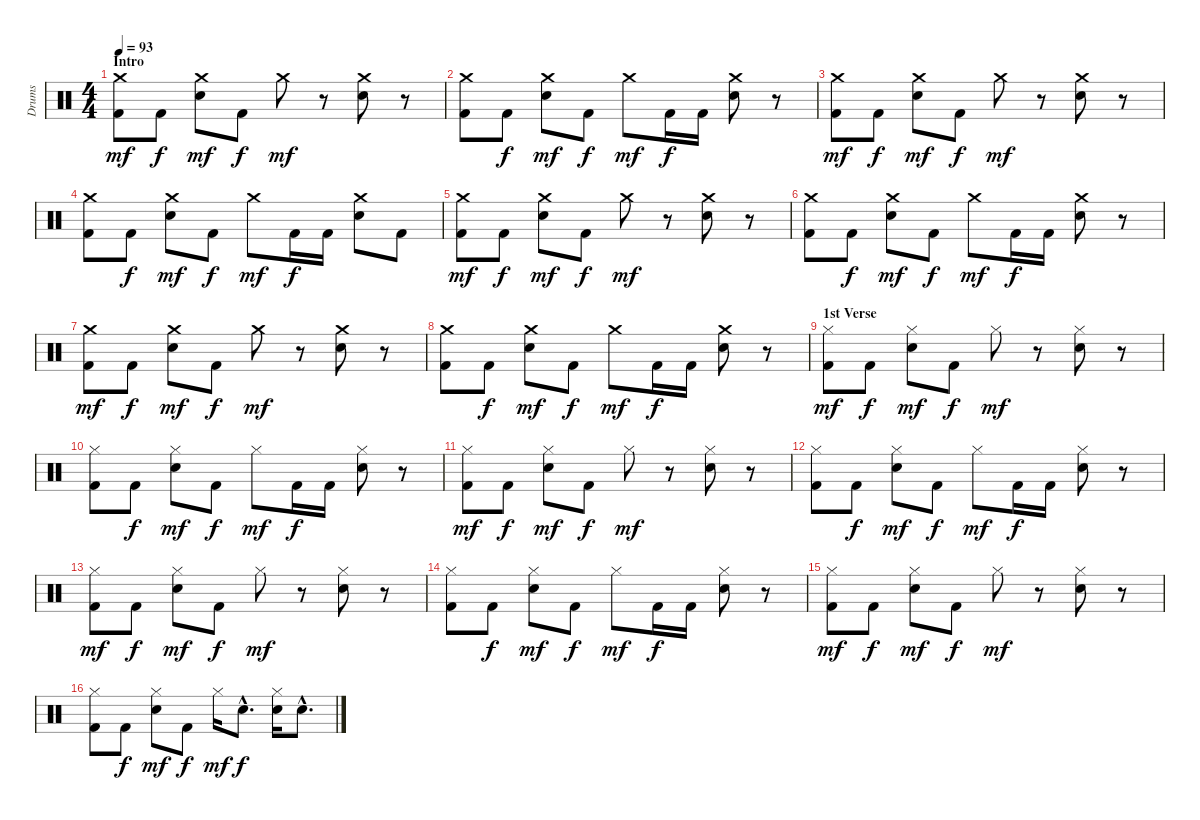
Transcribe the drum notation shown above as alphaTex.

\track ("Drums" "Drums") {instrument percussion}
\staff {score}
\articulation defaults
\ts (4 4)
\section ("" "Intro")
\tempo 93
\clef neutral
\ks c
("Kick (hit) 2" "Crash medium (hit)").8{dy mf} "Kick (hit) 2".8{dy f} ("Snare (hit) 2" "Crash medium (hit)").8{dy mf} "Kick (hit) 2".8{dy f} "Crash medium (hit)".8{dy mf} r.8 ("Snare (hit) 2" "Crash medium (hit)").8 r.8 |
("Kick (hit) 2" "Crash medium (hit)").8 "Kick (hit) 2".8{dy f} ("Snare (hit) 2" "Crash medium (hit)").8{dy mf} "Kick (hit) 2".8{dy f} "Crash medium (hit)".8{dy mf} "Kick (hit) 2".16{dy f} "Kick (hit) 2".16 ("Snare (hit) 2" "Crash medium (hit)").8 r.8 |
("Kick (hit) 2" "Crash medium (hit)").8{dy mf} "Kick (hit) 2".8{dy f} ("Snare (hit) 2" "Crash medium (hit)").8{dy mf} "Kick (hit) 2".8{dy f} "Crash medium (hit)".8{dy mf} r.8 ("Snare (hit) 2" "Crash medium (hit)").8 r.8 |
("Kick (hit) 2" "Crash medium (hit)").8 "Kick (hit) 2".8{dy f} ("Snare (hit) 2" "Crash medium (hit)").8{dy mf} "Kick (hit) 2".8{dy f} "Crash medium (hit)".8{dy mf} "Kick (hit) 2".16{dy f} "Kick (hit) 2".16 ("Snare (hit) 2" "Crash medium (hit)").8 "Kick (hit) 2".8 |
("Kick (hit) 2" "Crash medium (hit)").8{dy mf} "Kick (hit) 2".8{dy f} ("Snare (hit) 2" "Crash medium (hit)").8{dy mf} "Kick (hit) 2".8{dy f} "Crash medium (hit)".8{dy mf} r.8 ("Snare (hit) 2" "Crash medium (hit)").8 r.8 |
("Kick (hit) 2" "Crash medium (hit)").8 "Kick (hit) 2".8{dy f} ("Snare (hit) 2" "Crash medium (hit)").8{dy mf} "Kick (hit) 2".8{dy f} "Crash medium (hit)".8{dy mf} "Kick (hit) 2".16{dy f} "Kick (hit) 2".16 ("Snare (hit) 2" "Crash medium (hit)").8 r.8 |
("Kick (hit) 2" "Crash medium (hit)").8{dy mf} "Kick (hit) 2".8{dy f} ("Snare (hit) 2" "Crash medium (hit)").8{dy mf} "Kick (hit) 2".8{dy f} "Crash medium (hit)".8{dy mf} r.8 ("Snare (hit) 2" "Crash medium (hit)").8 r.8 |
("Kick (hit) 2" "Crash medium (hit)").8 "Kick (hit) 2".8{dy f} ("Snare (hit) 2" "Crash medium (hit)").8{dy mf} "Kick (hit) 2".8{dy f} "Crash medium (hit)".8{dy mf} "Kick (hit) 2".16{dy f} "Kick (hit) 2".16 ("Snare (hit) 2" "Crash medium (hit)").8 r.8 |
\section ("" "1st Verse")
("Kick (hit) 2" "Hi-Hat (closed)").8{dy mf} "Kick (hit) 2".8{dy f} ("Snare (hit) 2" "Hi-Hat (closed)").8{dy mf} "Kick (hit) 2".8{dy f} "Hi-Hat (closed)".8{dy mf} r.8 ("Snare (hit) 2" "Hi-Hat (closed)").8 r.8 |
("Kick (hit) 2" "Hi-Hat (closed)").8 "Kick (hit) 2".8{dy f} ("Snare (hit) 2" "Hi-Hat (closed)").8{dy mf} "Kick (hit) 2".8{dy f} "Hi-Hat (closed)".8{dy mf} "Kick (hit) 2".16{dy f} "Kick (hit) 2".16 ("Snare (hit) 2" "Hi-Hat (closed)").8 r.8 |
("Kick (hit) 2" "Hi-Hat (closed)").8{dy mf} "Kick (hit) 2".8{dy f} ("Snare (hit) 2" "Hi-Hat (closed)").8{dy mf} "Kick (hit) 2".8{dy f} "Hi-Hat (closed)".8{dy mf} r.8 ("Snare (hit) 2" "Hi-Hat (closed)").8 r.8 |
("Kick (hit) 2" "Hi-Hat (closed)").8 "Kick (hit) 2".8{dy f} ("Snare (hit) 2" "Hi-Hat (closed)").8{dy mf} "Kick (hit) 2".8{dy f} "Hi-Hat (closed)".8{dy mf} "Kick (hit) 2".16{dy f} "Kick (hit) 2".16 ("Snare (hit) 2" "Hi-Hat (closed)").8 r.8 |
("Kick (hit) 2" "Hi-Hat (closed)").8{dy mf} "Kick (hit) 2".8{dy f} ("Snare (hit) 2" "Hi-Hat (closed)").8{dy mf} "Kick (hit) 2".8{dy f} "Hi-Hat (closed)".8{dy mf} r.8 ("Snare (hit) 2" "Hi-Hat (closed)").8 r.8 |
("Kick (hit) 2" "Hi-Hat (closed)").8 "Kick (hit) 2".8{dy f} ("Snare (hit) 2" "Hi-Hat (closed)").8{dy mf} "Kick (hit) 2".8{dy f} "Hi-Hat (closed)".8{dy mf} "Kick (hit) 2".16{dy f} "Kick (hit) 2".16 ("Snare (hit) 2" "Hi-Hat (closed)").8 r.8 |
("Kick (hit) 2" "Hi-Hat (closed)").8{dy mf} "Kick (hit) 2".8{dy f} ("Snare (hit) 2" "Hi-Hat (closed)").8{dy mf} "Kick (hit) 2".8{dy f} "Hi-Hat (closed)".8{dy mf} r.8 ("Snare (hit) 2" "Hi-Hat (closed)").8 r.8 |
("Kick (hit) 2" "Hi-Hat (closed)").8 "Kick (hit) 2".8{dy f} ("Snare (hit) 2" "Hi-Hat (closed)").8{dy mf} "Kick (hit) 2".8{dy f} "Hi-Hat (closed)".16{dy mf} "Snare (hit) 2"{hac}.8{d dy f} ("Snare (hit) 2" "Hi-Hat (closed)").16 "Snare (hit) 2"{hac}.8{d}
